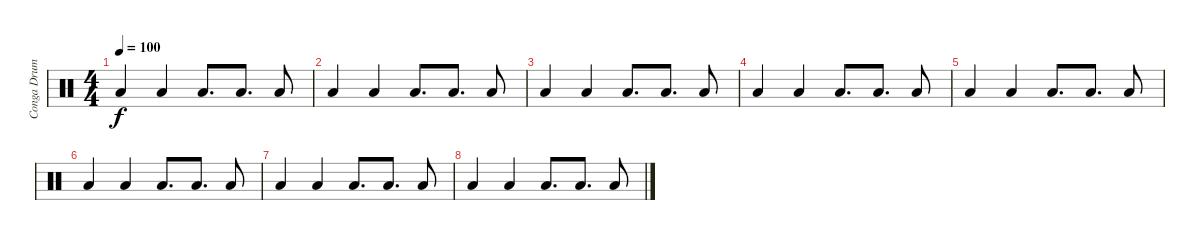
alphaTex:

\track ("Conga Drum" "Conga Drum") {instrument percussion}
\staff {score}
\articulation defaults
\ts (4 4)
\tempo 100
\clef neutral
\ks c "Low Floor Tom (hit)".4{dy f} "Low Floor Tom (hit)".4 "Low Floor Tom (hit)".8{d} "Low Floor Tom (hit)".8{d} "Low Floor Tom (hit)".8
|
"Low Floor Tom (hit)".4 "Low Floor Tom (hit)".4 "Low Floor Tom (hit)".8{d} "Low Floor Tom (hit)".8{d} "Low Floor Tom (hit)".8 |
"Low Floor Tom (hit)".4 "Low Floor Tom (hit)".4 "Low Floor Tom (hit)".8{d} "Low Floor Tom (hit)".8{d} "Low Floor Tom (hit)".8 |
"Low Floor Tom (hit)".4 "Low Floor Tom (hit)".4 "Low Floor Tom (hit)".8{d} "Low Floor Tom (hit)".8{d} "Low Floor Tom (hit)".8 |
"Low Floor Tom (hit)".4 "Low Floor Tom (hit)".4 "Low Floor Tom (hit)".8{d} "Low Floor Tom (hit)".8{d} "Low Floor Tom (hit)".8 |
"Low Floor Tom (hit)".4 "Low Floor Tom (hit)".4 "Low Floor Tom (hit)".8{d} "Low Floor Tom (hit)".8{d} "Low Floor Tom (hit)".8 |
"Low Floor Tom (hit)".4 "Low Floor Tom (hit)".4 "Low Floor Tom (hit)".8{d} "Low Floor Tom (hit)".8{d} "Low Floor Tom (hit)".8 |
"Low Floor Tom (hit)".4 "Low Floor Tom (hit)".4 "Low Floor Tom (hit)".8{d} "Low Floor Tom (hit)".8{d} "Low Floor Tom (hit)".8
